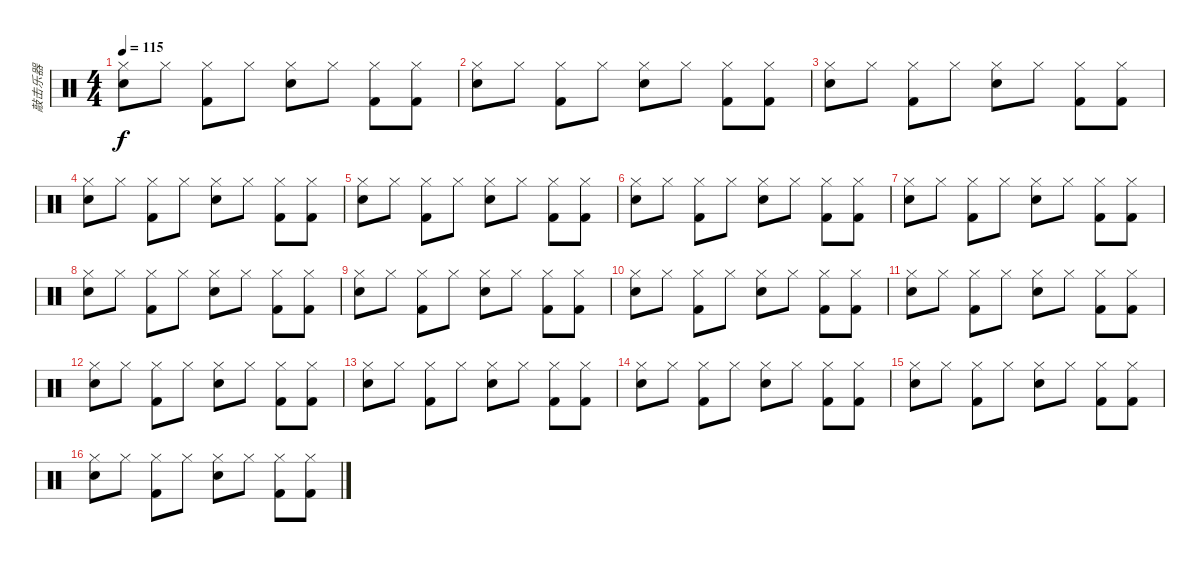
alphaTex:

\track ("敲击乐器" "敲击乐器") {instrument percussion}
\staff {score}
\articulation defaults
\ts (4 4)
\tempo 115
\clef neutral
\ks c
("Hi-Hat (closed)" "Electric Snare (hit)").8{dy f} "Hi-Hat (closed)".8 ("Hi-Hat (closed)" "Kick (hit) 2").8 "Hi-Hat (closed)".8 ("Hi-Hat (closed)" "Electric Snare (hit)").8 "Hi-Hat (closed)".8 ("Hi-Hat (closed)" "Kick (hit) 2").8 ("Hi-Hat (closed)" "Kick (hit) 2").8 |
("Hi-Hat (closed)" "Electric Snare (hit)").8 "Hi-Hat (closed)".8 ("Hi-Hat (closed)" "Kick (hit) 2").8 "Hi-Hat (closed)".8 ("Hi-Hat (closed)" "Electric Snare (hit)").8 "Hi-Hat (closed)".8 ("Hi-Hat (closed)" "Kick (hit) 2").8 ("Hi-Hat (closed)" "Kick (hit) 2").8 |
("Hi-Hat (closed)" "Electric Snare (hit)").8 "Hi-Hat (closed)".8 ("Hi-Hat (closed)" "Kick (hit) 2").8 "Hi-Hat (closed)".8 ("Hi-Hat (closed)" "Electric Snare (hit)").8 "Hi-Hat (closed)".8 ("Hi-Hat (closed)" "Kick (hit) 2").8 ("Hi-Hat (closed)" "Kick (hit) 2").8 |
("Hi-Hat (closed)" "Electric Snare (hit)").8 "Hi-Hat (closed)".8 ("Hi-Hat (closed)" "Kick (hit) 2").8 "Hi-Hat (closed)".8 ("Hi-Hat (closed)" "Electric Snare (hit)").8 "Hi-Hat (closed)".8 ("Hi-Hat (closed)" "Kick (hit) 2").8 ("Hi-Hat (closed)" "Kick (hit) 2").8 |
("Hi-Hat (closed)" "Electric Snare (hit)").8 "Hi-Hat (closed)".8 ("Hi-Hat (closed)" "Kick (hit) 2").8 "Hi-Hat (closed)".8 ("Hi-Hat (closed)" "Electric Snare (hit)").8 "Hi-Hat (closed)".8 ("Hi-Hat (closed)" "Kick (hit) 2").8 ("Hi-Hat (closed)" "Kick (hit) 2").8 |
("Hi-Hat (closed)" "Electric Snare (hit)").8 "Hi-Hat (closed)".8 ("Hi-Hat (closed)" "Kick (hit) 2").8 "Hi-Hat (closed)".8 ("Hi-Hat (closed)" "Electric Snare (hit)").8 "Hi-Hat (closed)".8 ("Hi-Hat (closed)" "Kick (hit) 2").8 ("Hi-Hat (closed)" "Kick (hit) 2").8 |
("Hi-Hat (closed)" "Electric Snare (hit)").8 "Hi-Hat (closed)".8 ("Hi-Hat (closed)" "Kick (hit) 2").8 "Hi-Hat (closed)".8 ("Hi-Hat (closed)" "Electric Snare (hit)").8 "Hi-Hat (closed)".8 ("Hi-Hat (closed)" "Kick (hit) 2").8 ("Hi-Hat (closed)" "Kick (hit) 2").8 |
("Hi-Hat (closed)" "Electric Snare (hit)").8 "Hi-Hat (closed)".8 ("Hi-Hat (closed)" "Kick (hit) 2").8 "Hi-Hat (closed)".8 ("Hi-Hat (closed)" "Electric Snare (hit)").8 "Hi-Hat (closed)".8 ("Hi-Hat (closed)" "Kick (hit) 2").8 ("Hi-Hat (closed)" "Kick (hit) 2").8 |
("Hi-Hat (closed)" "Electric Snare (hit)").8 "Hi-Hat (closed)".8 ("Hi-Hat (closed)" "Kick (hit) 2").8 "Hi-Hat (closed)".8 ("Hi-Hat (closed)" "Electric Snare (hit)").8 "Hi-Hat (closed)".8 ("Hi-Hat (closed)" "Kick (hit) 2").8 ("Hi-Hat (closed)" "Kick (hit) 2").8 |
("Hi-Hat (closed)" "Electric Snare (hit)").8 "Hi-Hat (closed)".8 ("Hi-Hat (closed)" "Kick (hit) 2").8 "Hi-Hat (closed)".8 ("Hi-Hat (closed)" "Electric Snare (hit)").8 "Hi-Hat (closed)".8 ("Hi-Hat (closed)" "Kick (hit) 2").8 ("Hi-Hat (closed)" "Kick (hit) 2").8 |
("Hi-Hat (closed)" "Electric Snare (hit)").8 "Hi-Hat (closed)".8 ("Hi-Hat (closed)" "Kick (hit) 2").8 "Hi-Hat (closed)".8 ("Hi-Hat (closed)" "Electric Snare (hit)").8 "Hi-Hat (closed)".8 ("Hi-Hat (closed)" "Kick (hit) 2").8 ("Hi-Hat (closed)" "Kick (hit) 2").8 |
("Hi-Hat (closed)" "Electric Snare (hit)").8 "Hi-Hat (closed)".8 ("Hi-Hat (closed)" "Kick (hit) 2").8 "Hi-Hat (closed)".8 ("Hi-Hat (closed)" "Electric Snare (hit)").8 "Hi-Hat (closed)".8 ("Hi-Hat (closed)" "Kick (hit) 2").8 ("Hi-Hat (closed)" "Kick (hit) 2").8 |
("Hi-Hat (closed)" "Electric Snare (hit)").8 "Hi-Hat (closed)".8 ("Hi-Hat (closed)" "Kick (hit) 2").8 "Hi-Hat (closed)".8 ("Hi-Hat (closed)" "Electric Snare (hit)").8 "Hi-Hat (closed)".8 ("Hi-Hat (closed)" "Kick (hit) 2").8 ("Hi-Hat (closed)" "Kick (hit) 2").8 |
("Hi-Hat (closed)" "Electric Snare (hit)").8 "Hi-Hat (closed)".8 ("Hi-Hat (closed)" "Kick (hit) 2").8 "Hi-Hat (closed)".8 ("Hi-Hat (closed)" "Electric Snare (hit)").8 "Hi-Hat (closed)".8 ("Hi-Hat (closed)" "Kick (hit) 2").8 ("Hi-Hat (closed)" "Kick (hit) 2").8 |
("Hi-Hat (closed)" "Electric Snare (hit)").8 "Hi-Hat (closed)".8 ("Hi-Hat (closed)" "Kick (hit) 2").8 "Hi-Hat (closed)".8 ("Hi-Hat (closed)" "Electric Snare (hit)").8 "Hi-Hat (closed)".8 ("Hi-Hat (closed)" "Kick (hit) 2").8 ("Hi-Hat (closed)" "Kick (hit) 2").8 |
("Hi-Hat (closed)" "Electric Snare (hit)").8 "Hi-Hat (closed)".8 ("Hi-Hat (closed)" "Kick (hit) 2").8 "Hi-Hat (closed)".8 ("Hi-Hat (closed)" "Electric Snare (hit)").8 "Hi-Hat (closed)".8 ("Hi-Hat (closed)" "Kick (hit) 2").8 ("Hi-Hat (closed)" "Kick (hit) 2").8
